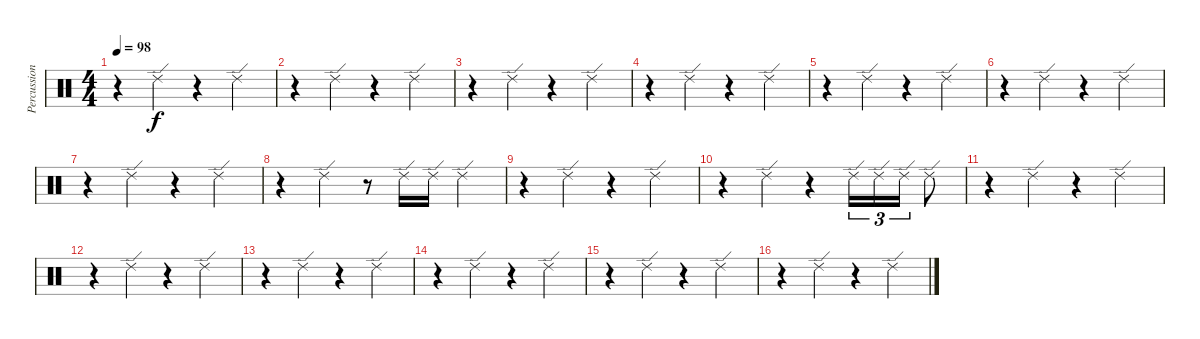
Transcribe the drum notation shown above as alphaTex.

\track ("Percussion" "Percussion") {instrument percussion}
\staff {score}
\articulation defaults
\ts (4 4)
\tempo 98
\clef neutral
\ks c
r.4{dy f} "Ride (edge) 2".4 r.4 "Ride (edge) 2".4 |
r.4 "Ride (edge) 2".4 r.4 "Ride (edge) 2".4 |
r.4 "Ride (edge) 2".4 r.4 "Ride (edge) 2".4 |
r.4 "Ride (edge) 2".4 r.4 "Ride (edge) 2".4 |
r.4 "Ride (edge) 2".4 r.4 "Ride (edge) 2".4 |
r.4 "Ride (edge) 2".4 r.4 "Ride (edge) 2".4 |
r.4 "Ride (edge) 2".4 r.4 "Ride (edge) 2".4 |
r.4 "Ride (edge) 2".4 r.8 "Ride (edge) 2".16 "Ride (edge) 2".16 "Ride (edge) 2".4 |
r.4 "Ride (edge) 2".4 r.4 "Ride (edge) 2".4 |
r.4 "Ride (edge) 2".4 r.4 "Ride (edge) 2".16{tu (3 2)} "Ride (edge) 2".16{tu (3 2)} "Ride (edge) 2".16{tu (3 2)} "Ride (edge) 2".8 |
r.4 "Ride (edge) 2".4{volume 8} r.4 "Ride (edge) 2".4 |
r.4 "Ride (edge) 2".4 r.4 "Ride (edge) 2".4 |
r.4 "Ride (edge) 2".4 r.4 "Ride (edge) 2".4 |
r.4 "Ride (edge) 2".4 r.4 "Ride (edge) 2".4 |
r.4 "Ride (edge) 2".4{volume 0} r.4 "Ride (edge) 2".4 |
r.4 "Ride (edge) 2".4 r.4 "Ride (edge) 2".4
